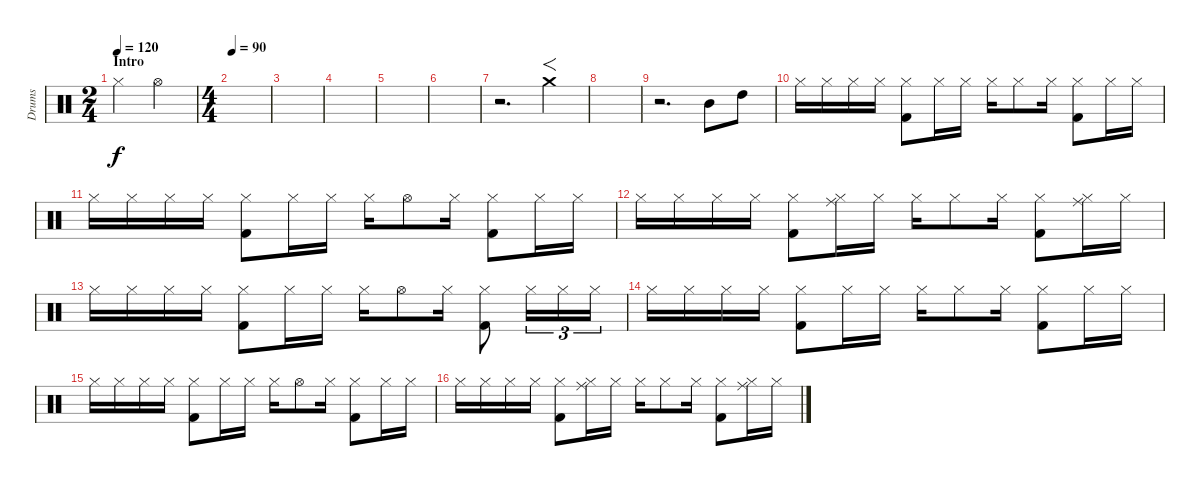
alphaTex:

\track ("Drums" "Drums") {instrument percussion}
\staff {score}
\articulation defaults
\ts (2 4)
\section ("" "Intro")
\tempo 120
\tempo 90
\tempo 120
\clef neutral
\ks c "Hi-Hat (closed)".4{dy f} "Hi-Hat (open)".4
|
\ts (4 4)
\tempo 90
|
|
|
|
|
r.2{d} "Crash medium (hit)".4{f} |
|
r.2{d} "Mid Tom (hit)".8 "High Tom (hit)".8 |
"Hi-Hat (closed)".16 "Hi-Hat (closed)".16 "Hi-Hat (closed)".16 "Hi-Hat (closed)".16 ("Hi-Hat (closed)" "Kick (hit) 2").8 "Hi-Hat (closed)".16 "Hi-Hat (closed)".16 "Hi-Hat (closed)".16 "Hi-Hat (closed)".8 "Hi-Hat (closed)".16 ("Hi-Hat (closed)" "Kick (hit) 2").8 "Hi-Hat (closed)".16 "Hi-Hat (closed)".16 |
"Hi-Hat (closed)".16 "Hi-Hat (closed)".16 "Hi-Hat (closed)".16 "Hi-Hat (closed)".16 ("Hi-Hat (closed)" "Kick (hit) 2").8 "Hi-Hat (closed)".16 "Hi-Hat (closed)".16 "Hi-Hat (closed)".16 "Hi-Hat (open)".8 "Hi-Hat (closed)".16 ("Hi-Hat (closed)" "Kick (hit) 2").8 "Hi-Hat (closed)".16 "Hi-Hat (closed)".16 |
"Hi-Hat (closed)".16 "Hi-Hat (closed)".16 "Hi-Hat (closed)".16 "Hi-Hat (closed)".16 ("Hi-Hat (closed)" "Kick (hit) 2").8 ("Hi-Hat (closed)" "Ride (middle)").16 "Hi-Hat (closed)".16 "Hi-Hat (closed)".16 "Hi-Hat (closed)".8 "Hi-Hat (closed)".16 ("Hi-Hat (closed)" "Kick (hit) 2").8 ("Hi-Hat (closed)" "Ride (middle)").16 "Hi-Hat (closed)".16 |
"Hi-Hat (closed)".16 "Hi-Hat (closed)".16 "Hi-Hat (closed)".16 "Hi-Hat (closed)".16 ("Hi-Hat (closed)" "Kick (hit) 2").8 "Hi-Hat (closed)".16 "Hi-Hat (closed)".16 "Hi-Hat (closed)".16 "Hi-Hat (open)".8 "Hi-Hat (closed)".16 ("Hi-Hat (closed)" "Kick (hit) 2").8 "Hi-Hat (closed)".16{tu (3 2)} "Hi-Hat (closed)".16{tu (3 2)} "Hi-Hat (closed)".16{tu (3 2)} |
"Hi-Hat (closed)".16 "Hi-Hat (closed)".16 "Hi-Hat (closed)".16 "Hi-Hat (closed)".16 ("Hi-Hat (closed)" "Kick (hit) 2").8 "Hi-Hat (closed)".16 "Hi-Hat (closed)".16 "Hi-Hat (closed)".16 "Hi-Hat (closed)".8 "Hi-Hat (closed)".16 ("Hi-Hat (closed)" "Kick (hit) 2").8 "Hi-Hat (closed)".16 "Hi-Hat (closed)".16 |
"Hi-Hat (closed)".16 "Hi-Hat (closed)".16 "Hi-Hat (closed)".16 "Hi-Hat (closed)".16 ("Hi-Hat (closed)" "Kick (hit) 2").8 "Hi-Hat (closed)".16 "Hi-Hat (closed)".16 "Hi-Hat (closed)".16 "Hi-Hat (open)".8 "Hi-Hat (closed)".16 ("Hi-Hat (closed)" "Kick (hit) 2").8 "Hi-Hat (closed)".16 "Hi-Hat (closed)".16 |
"Hi-Hat (closed)".16 "Hi-Hat (closed)".16 "Hi-Hat (closed)".16 "Hi-Hat (closed)".16 ("Hi-Hat (closed)" "Kick (hit) 2").8 ("Hi-Hat (closed)" "Ride (middle)").16 "Hi-Hat (closed)".16 "Hi-Hat (closed)".16 "Hi-Hat (closed)".8 "Hi-Hat (closed)".16 ("Hi-Hat (closed)" "Kick (hit) 2").8 ("Hi-Hat (closed)" "Ride (middle)").16 "Hi-Hat (closed)".16
